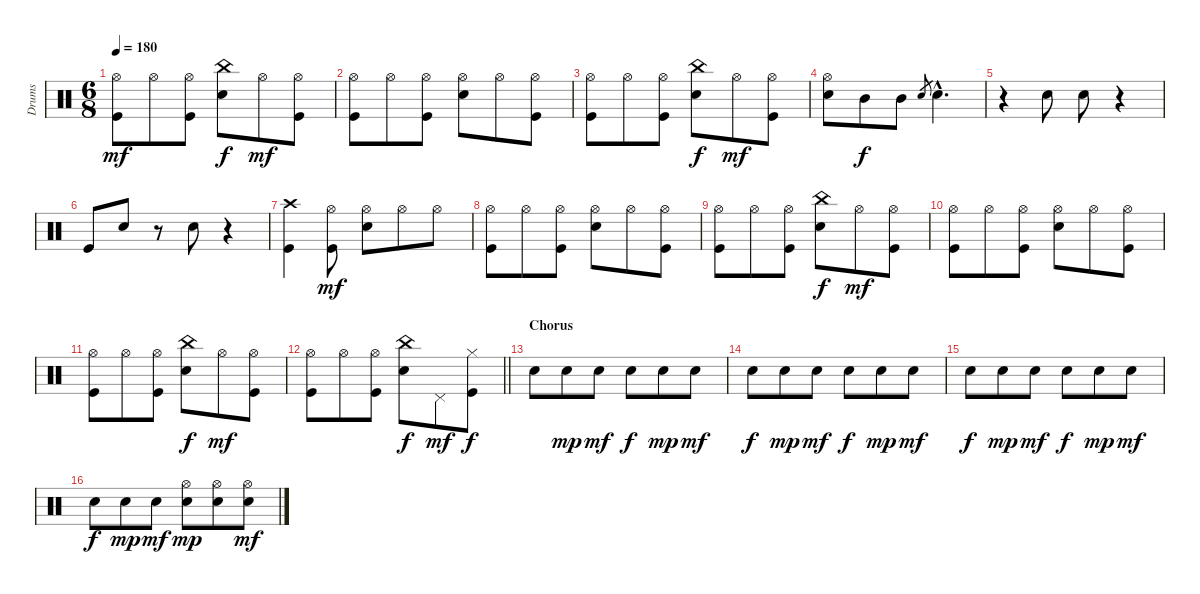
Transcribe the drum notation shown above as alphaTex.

\track ("Drums" "Drums") {instrument percussion}
\staff {score}
\articulation defaults
\ts (6 8)
\tempo 180
\clef neutral
\ks c
("Hi-Hat (open)" "Kick (hit)").8{dy mf} "Hi-Hat (open)".8 ("Hi-Hat (open)" "Kick (hit)").8 ("China (hit)" "Electric Snare (hit)").8{dy f} "Hi-Hat (open)".8{dy mf} ("Hi-Hat (open)" "Kick (hit)").8 |
("Hi-Hat (open)" "Kick (hit)").8 "Hi-Hat (open)".8 ("Hi-Hat (open)" "Kick (hit)").8 ("Hi-Hat (open)" "Electric Snare (hit)").8 "Hi-Hat (open)".8 ("Hi-Hat (open)" "Kick (hit)").8 |
("Hi-Hat (open)" "Kick (hit)").8 "Hi-Hat (open)".8 ("Hi-Hat (open)" "Kick (hit)").8 ("China (hit)" "Electric Snare (hit)").8{dy f} "Hi-Hat (open)".8{dy mf} ("Hi-Hat (open)" "Kick (hit)").8 |
("Hi-Hat (open)" "Electric Snare (hit)").8 "Mid Tom (hit)".8{dy f} "Mid Tom (hit)".8 "Electric Snare (hit)".8{gr} "Electric Snare (hit)"{hac}.4{d} |
r.4 "Electric Snare (hit)".8 "Electric Snare (hit)".8 r.4 |
"Kick (hit)".8 "Electric Snare (hit)".8 r.8 "Electric Snare (hit)".8 r.4 |
("Crash high (hit)" "Kick (hit)").4 ("Hi-Hat (open)" "Kick (hit)").8{dy mf} ("Hi-Hat (open)" "Electric Snare (hit)").8 "Hi-Hat (open)".8 "Hi-Hat (open)".8 |
("Hi-Hat (open)" "Kick (hit)").8 "Hi-Hat (open)".8 ("Hi-Hat (open)" "Kick (hit)").8 ("Hi-Hat (open)" "Electric Snare (hit)").8 "Hi-Hat (open)".8 ("Hi-Hat (open)" "Kick (hit)").8 |
("Hi-Hat (open)" "Kick (hit)").8 "Hi-Hat (open)".8 ("Hi-Hat (open)" "Kick (hit)").8 ("China (hit)" "Electric Snare (hit)").8{dy f} "Hi-Hat (open)".8{dy mf} ("Hi-Hat (open)" "Kick (hit)").8 |
("Hi-Hat (open)" "Kick (hit)").8 "Hi-Hat (open)".8 ("Hi-Hat (open)" "Kick (hit)").8 ("Hi-Hat (open)" "Electric Snare (hit)").8 "Hi-Hat (open)".8 ("Hi-Hat (open)" "Kick (hit)").8 |
("Hi-Hat (open)" "Kick (hit)").8 "Hi-Hat (open)".8 ("Hi-Hat (open)" "Kick (hit)").8 ("China (hit)" "Electric Snare (hit)").8{dy f} "Hi-Hat (open)".8{dy mf} ("Hi-Hat (open)" "Kick (hit)").8 |
\barLineRight lightlight
("Hi-Hat (open)" "Kick (hit)").8 "Hi-Hat (open)".8 ("Hi-Hat (open)" "Kick (hit)").8 ("China (hit)" "Electric Snare (hit)").8{dy f} "Pedal Hi-Hat (hit)".8{dy mf} ("Hi-Hat (closed)" "Kick (hit)").8{dy f} |
\section ("" "Chorus")
"Electric Snare (hit)".8 "Electric Snare (hit)".8{dy mp} "Electric Snare (hit)".8{dy mf} "Electric Snare (hit)".8{dy f} "Electric Snare (hit)".8{dy mp} "Electric Snare (hit)".8{dy mf} |
"Electric Snare (hit)".8{dy f} "Electric Snare (hit)".8{dy mp} "Electric Snare (hit)".8{dy mf} "Electric Snare (hit)".8{dy f} "Electric Snare (hit)".8{dy mp} "Electric Snare (hit)".8{dy mf} |
"Electric Snare (hit)".8{dy f} "Electric Snare (hit)".8{dy mp} "Electric Snare (hit)".8{dy mf} "Electric Snare (hit)".8{dy f} "Electric Snare (hit)".8{dy mp} "Electric Snare (hit)".8{dy mf} |
"Electric Snare (hit)".8{dy f} "Electric Snare (hit)".8{dy mp} "Electric Snare (hit)".8{dy mf} ("Hi-Hat (open)" "Electric Snare (hit)").8{dy mp} ("Hi-Hat (open)" "Electric Snare (hit)").8 ("Hi-Hat (open)" "Electric Snare (hit)").8{dy mf}
